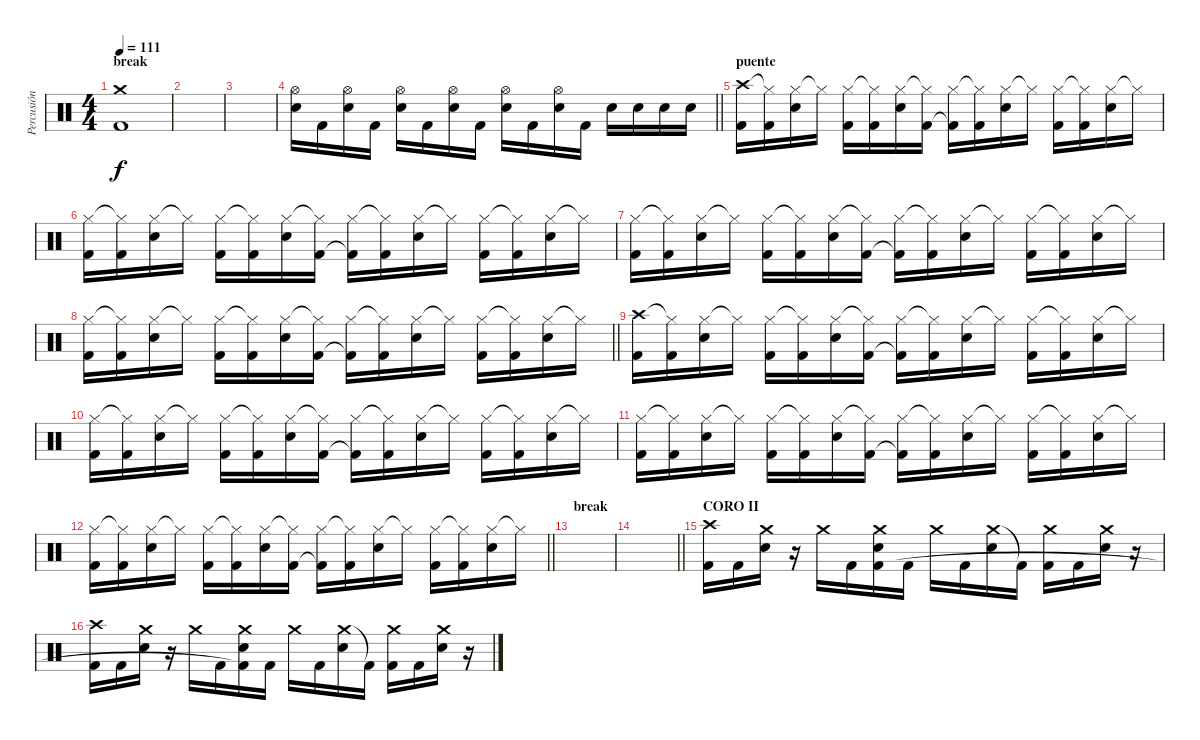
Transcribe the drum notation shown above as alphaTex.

\track ("Percusión" "Percusión") {instrument percussion}
\staff {score}
\articulation defaults
\ts (4 4)
\section ("" "break")
\tempo 111
\clef neutral
\ks c
("Crash medium (hit)" "Kick (hit) 2").1{dy f} |
|
|
\barLineRight lightlight
("Hi-Hat (open)" "Electric Snare (hit)").16 "Kick (hit) 2".16 ("Hi-Hat (open)" "Electric Snare (hit)").16 "Kick (hit) 2".16 ("Hi-Hat (open)" "Electric Snare (hit)").16 "Kick (hit) 2".16 ("Hi-Hat (open)" "Electric Snare (hit)").16 "Kick (hit) 2".16 ("Hi-Hat (open)" "Electric Snare (hit)").16 "Kick (hit) 2".16 ("Hi-Hat (open)" "Electric Snare (hit)").16 "Kick (hit) 2".16 "Electric Snare (hit)".16 "Electric Snare (hit)".16 "Electric Snare (hit)".16 "Electric Snare (hit)".16 |
\section ("" "puente")
("Crash high (hit)" "Kick (hit) 2").16 ("Hi-Hat (closed)"{t} "Kick (hit) 2").16 ("Hi-Hat (closed)" "Electric Snare (hit)").16 "Hi-Hat (closed)"{t}.16 ("Hi-Hat (closed)" "Kick (hit) 2").16 ("Hi-Hat (closed)"{t} "Kick (hit) 2").16 ("Hi-Hat (closed)" "Electric Snare (hit)").16 ("Hi-Hat (closed)"{t} "Kick (hit) 2").16 ("Hi-Hat (closed)" "Kick (hit) 2"{t}).16 ("Hi-Hat (closed)"{t} "Kick (hit) 2").16 ("Hi-Hat (closed)" "Electric Snare (hit)").16 "Hi-Hat (closed)"{t}.16 ("Hi-Hat (closed)" "Kick (hit) 2").16 ("Hi-Hat (closed)"{t} "Kick (hit) 2").16 ("Hi-Hat (closed)" "Electric Snare (hit)").16 "Hi-Hat (closed)"{t}.16 |
("Hi-Hat (closed)" "Kick (hit) 2").16 ("Hi-Hat (closed)"{t} "Kick (hit) 2").16 ("Hi-Hat (closed)" "Electric Snare (hit)").16 "Hi-Hat (closed)"{t}.16 ("Hi-Hat (closed)" "Kick (hit) 2").16 ("Hi-Hat (closed)"{t} "Kick (hit) 2").16 ("Hi-Hat (closed)" "Electric Snare (hit)").16 ("Hi-Hat (closed)"{t} "Kick (hit) 2").16 ("Hi-Hat (closed)" "Kick (hit) 2"{t}).16 ("Hi-Hat (closed)"{t} "Kick (hit) 2").16 ("Hi-Hat (closed)" "Electric Snare (hit)").16 "Hi-Hat (closed)"{t}.16 ("Hi-Hat (closed)" "Kick (hit) 2").16 ("Hi-Hat (closed)"{t} "Kick (hit) 2").16 ("Hi-Hat (closed)" "Electric Snare (hit)").16 "Hi-Hat (closed)"{t}.16 |
("Hi-Hat (closed)" "Kick (hit) 2").16 ("Hi-Hat (closed)"{t} "Kick (hit) 2").16 ("Hi-Hat (closed)" "Electric Snare (hit)").16 "Hi-Hat (closed)"{t}.16 ("Hi-Hat (closed)" "Kick (hit) 2").16 ("Hi-Hat (closed)"{t} "Kick (hit) 2").16 ("Hi-Hat (closed)" "Electric Snare (hit)").16 ("Hi-Hat (closed)"{t} "Kick (hit) 2").16 ("Hi-Hat (closed)" "Kick (hit) 2"{t}).16 ("Hi-Hat (closed)"{t} "Kick (hit) 2").16 ("Hi-Hat (closed)" "Electric Snare (hit)").16 "Hi-Hat (closed)"{t}.16 ("Hi-Hat (closed)" "Kick (hit) 2").16 ("Hi-Hat (closed)"{t} "Kick (hit) 2").16 ("Hi-Hat (closed)" "Electric Snare (hit)").16 "Hi-Hat (closed)"{t}.16 |
\barLineRight lightlight
("Hi-Hat (closed)" "Kick (hit) 2").16 ("Hi-Hat (closed)"{t} "Kick (hit) 2").16 ("Hi-Hat (closed)" "Electric Snare (hit)").16 "Hi-Hat (closed)"{t}.16 ("Hi-Hat (closed)" "Kick (hit) 2").16 ("Hi-Hat (closed)"{t} "Kick (hit) 2").16 ("Hi-Hat (closed)" "Electric Snare (hit)").16 ("Hi-Hat (closed)"{t} "Kick (hit) 2").16 ("Hi-Hat (closed)" "Kick (hit) 2"{t}).16 ("Hi-Hat (closed)"{t} "Kick (hit) 2").16 ("Hi-Hat (closed)" "Electric Snare (hit)").16 "Hi-Hat (closed)"{t}.16 ("Hi-Hat (closed)" "Kick (hit) 2").16 ("Hi-Hat (closed)"{t} "Kick (hit) 2").16 ("Hi-Hat (closed)" "Electric Snare (hit)").16 "Hi-Hat (closed)"{t}.16 |
("Crash high (hit)" "Kick (hit) 2").16 ("Hi-Hat (closed)"{t} "Kick (hit) 2").16 ("Hi-Hat (closed)" "Electric Snare (hit)").16 "Hi-Hat (closed)"{t}.16 ("Hi-Hat (closed)" "Kick (hit) 2").16 ("Hi-Hat (closed)"{t} "Kick (hit) 2").16 ("Hi-Hat (closed)" "Electric Snare (hit)").16 ("Hi-Hat (closed)"{t} "Kick (hit) 2").16 ("Hi-Hat (closed)" "Kick (hit) 2"{t}).16 ("Hi-Hat (closed)"{t} "Kick (hit) 2").16 ("Hi-Hat (closed)" "Electric Snare (hit)").16 "Hi-Hat (closed)"{t}.16 ("Hi-Hat (closed)" "Kick (hit) 2").16 ("Hi-Hat (closed)"{t} "Kick (hit) 2").16 ("Hi-Hat (closed)" "Electric Snare (hit)").16 "Hi-Hat (closed)"{t}.16 |
("Hi-Hat (closed)" "Kick (hit) 2").16 ("Hi-Hat (closed)"{t} "Kick (hit) 2").16 ("Hi-Hat (closed)" "Electric Snare (hit)").16 "Hi-Hat (closed)"{t}.16 ("Hi-Hat (closed)" "Kick (hit) 2").16 ("Hi-Hat (closed)"{t} "Kick (hit) 2").16 ("Hi-Hat (closed)" "Electric Snare (hit)").16 ("Hi-Hat (closed)"{t} "Kick (hit) 2").16 ("Hi-Hat (closed)" "Kick (hit) 2"{t}).16 ("Hi-Hat (closed)"{t} "Kick (hit) 2").16 ("Hi-Hat (closed)" "Electric Snare (hit)").16 "Hi-Hat (closed)"{t}.16 ("Hi-Hat (closed)" "Kick (hit) 2").16 ("Hi-Hat (closed)"{t} "Kick (hit) 2").16 ("Hi-Hat (closed)" "Electric Snare (hit)").16 "Hi-Hat (closed)"{t}.16 |
("Hi-Hat (closed)" "Kick (hit) 2").16 ("Hi-Hat (closed)"{t} "Kick (hit) 2").16 ("Hi-Hat (closed)" "Electric Snare (hit)").16 "Hi-Hat (closed)"{t}.16 ("Hi-Hat (closed)" "Kick (hit) 2").16 ("Hi-Hat (closed)"{t} "Kick (hit) 2").16 ("Hi-Hat (closed)" "Electric Snare (hit)").16 ("Hi-Hat (closed)"{t} "Kick (hit) 2").16 ("Hi-Hat (closed)" "Kick (hit) 2"{t}).16 ("Hi-Hat (closed)"{t} "Kick (hit) 2").16 ("Hi-Hat (closed)" "Electric Snare (hit)").16 "Hi-Hat (closed)"{t}.16 ("Hi-Hat (closed)" "Kick (hit) 2").16 ("Hi-Hat (closed)"{t} "Kick (hit) 2").16 ("Hi-Hat (closed)" "Electric Snare (hit)").16 "Hi-Hat (closed)"{t}.16 |
\barLineRight lightlight
("Hi-Hat (closed)" "Kick (hit) 2").16 ("Hi-Hat (closed)"{t} "Kick (hit) 2").16 ("Hi-Hat (closed)" "Electric Snare (hit)").16 "Hi-Hat (closed)"{t}.16 ("Hi-Hat (closed)" "Kick (hit) 2").16 ("Hi-Hat (closed)"{t} "Kick (hit) 2").16 ("Hi-Hat (closed)" "Electric Snare (hit)").16 ("Hi-Hat (closed)"{t} "Kick (hit) 2").16 ("Hi-Hat (closed)" "Kick (hit) 2"{t}).16 ("Hi-Hat (closed)"{t} "Kick (hit) 2").16 ("Hi-Hat (closed)" "Electric Snare (hit)").16 "Hi-Hat (closed)"{t}.16 ("Hi-Hat (closed)" "Kick (hit) 2").16 ("Hi-Hat (closed)"{t} "Kick (hit) 2").16 ("Hi-Hat (closed)" "Electric Snare (hit)").16 "Hi-Hat (closed)"{t}.16 |
\section ("" "break")
|
\barLineRight lightlight
|
\section ("" "CORO II")
("Crash high (hit)" "Kick (hit) 2").16 "Kick (hit) 2".16 ("Crash medium (hit)" "Electric Snare (hit)").16 r.16 "Crash medium (hit)".16 "Kick (hit) 2".16 ("Crash medium (hit)" "Electric Snare (hit)" "Kick (hit) 2").16 "Kick (hit) 2".16 "Crash medium (hit)".16 "Kick (hit) 2".16 ("Crash medium (hit)" "Electric Snare (hit)").16 "Kick (hit) 2"{t}.16 ("Crash medium (hit)" "Kick (hit) 2").16 "Kick (hit) 2".16 ("Crash medium (hit)" "Electric Snare (hit)").16 r.16 |
("Crash high (hit)" "Kick (hit) 2").16 "Kick (hit) 2".16 ("Crash medium (hit)" "Electric Snare (hit)").16 r.16 "Crash medium (hit)".16 "Kick (hit) 2".16 ("Crash medium (hit)" "Electric Snare (hit)" "Kick (hit) 2"{t}).16 "Kick (hit) 2".16 "Crash medium (hit)".16 "Kick (hit) 2".16 ("Crash medium (hit)" "Electric Snare (hit)").16 "Kick (hit) 2"{t}.16 ("Crash medium (hit)" "Kick (hit) 2").16 "Kick (hit) 2".16 ("Crash medium (hit)" "Electric Snare (hit)").16 r.16
